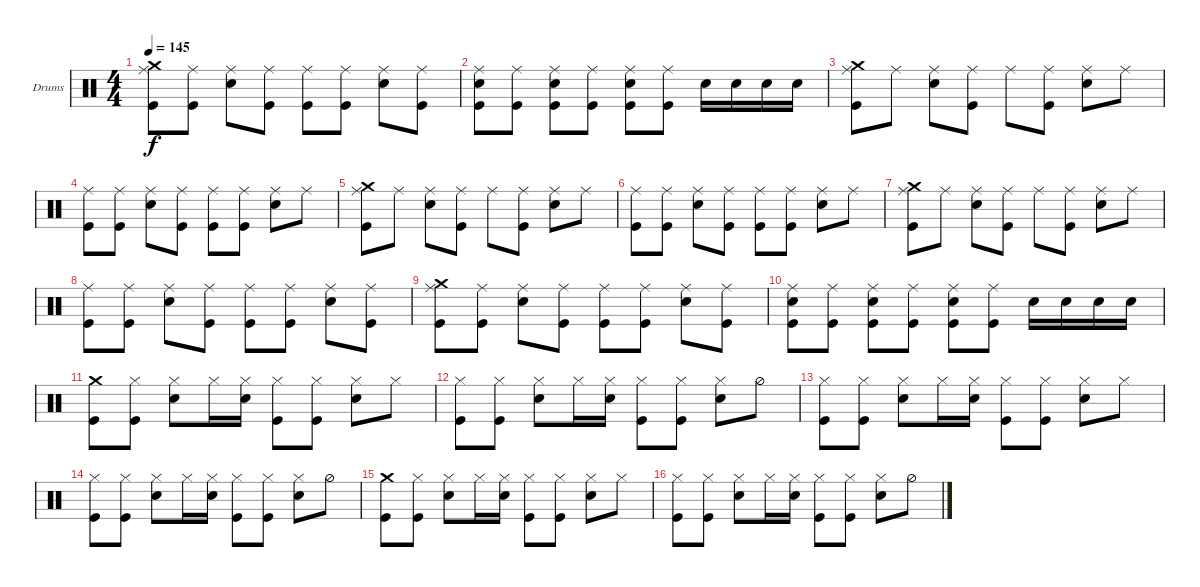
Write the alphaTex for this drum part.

\defaultSystemsLayout 4
\bracketExtendMode groupsimilarinstruments
\firstSystemTrackNameOrientation horizontal
\otherSystemsTrackNameOrientation horizontal
\track ("Drumkit" "Drums") {instrument percussion}
\staff {score}
\articulation defaults
\ts (4 4)
\tempo 145
\clef neutral
\ks c
("Crash medium (hit)" "Kick (hit)" "Ride (middle)").8{dy f} ("Ride (middle)" "Kick (hit)").8 ("Snare (hit) 2" "Ride (middle)").8 ("Kick (hit)" "Ride (middle)").8 ("Ride (middle)" "Kick (hit)").8 ("Kick (hit)" "Ride (middle)").8 ("Snare (hit) 2" "Ride (middle)").8 ("Ride (middle)" "Kick (hit)").8 |
("Kick (hit)" "Snare (hit) 2" "Ride (middle)").8 ("Kick (hit)" "Ride (middle)").8 ("Kick (hit)" "Snare (hit) 2" "Ride (middle)").8 ("Kick (hit)" "Ride (middle)").8 ("Kick (hit)" "Snare (hit) 2" "Ride (middle)").8 ("Kick (hit)" "Ride (middle)").8 "Snare (hit) 2".16 "Snare (hit) 2".16 "Snare (hit) 2".16 "Snare (hit) 2".16 |
("Kick (hit)" "Ride (middle)" "Crash medium (hit)").8 "Ride (middle)".8 ("Snare (hit) 2" "Ride (middle)").8 ("Kick (hit)" "Ride (middle)").8 "Ride (middle)".8 ("Kick (hit)" "Ride (middle)").8 ("Snare (hit) 2" "Ride (middle)").8 "Ride (middle)".8 |
("Kick (hit)" "Ride (middle)").8 ("Kick (hit)" "Ride (middle)").8 ("Snare (hit) 2" "Ride (middle)").8 ("Kick (hit)" "Ride (middle)").8 ("Kick (hit)" "Ride (middle)").8 ("Kick (hit)" "Ride (middle)").8 ("Snare (hit) 2" "Ride (middle)").8 "Ride (middle)".8 |
("Crash medium (hit)" "Kick (hit)" "Ride (middle)").8 "Ride (middle)".8 ("Snare (hit) 2" "Ride (middle)").8 ("Kick (hit)" "Ride (middle)").8 "Ride (middle)".8 ("Kick (hit)" "Ride (middle)").8 ("Snare (hit) 2" "Ride (middle)").8 "Ride (middle)".8 |
("Kick (hit)" "Ride (middle)").8 ("Kick (hit)" "Ride (middle)").8 ("Snare (hit) 2" "Ride (middle)").8 ("Kick (hit)" "Ride (middle)").8 ("Kick (hit)" "Ride (middle)").8 ("Kick (hit)" "Ride (middle)").8 ("Snare (hit) 2" "Ride (middle)").8 "Ride (middle)".8 |
("Kick (hit)" "Ride (middle)" "Crash medium (hit)").8 "Ride (middle)".8 ("Snare (hit) 2" "Ride (middle)").8 ("Kick (hit)" "Ride (middle)").8 "Ride (middle)".8 ("Kick (hit)" "Ride (middle)").8 ("Snare (hit) 2" "Ride (middle)").8 "Ride (middle)".8 |
("Kick (hit)" "Ride (middle)").8 ("Kick (hit)" "Ride (middle)").8 ("Snare (hit) 2" "Ride (middle)").8 ("Kick (hit)" "Ride (middle)").8 ("Kick (hit)" "Ride (middle)").8 ("Kick (hit)" "Ride (middle)").8 ("Snare (hit) 2" "Ride (middle)").8 ("Ride (middle)" "Kick (hit)").8 |
("Crash medium (hit)" "Kick (hit)" "Ride (middle)").8 ("Ride (middle)" "Kick (hit)").8 ("Snare (hit) 2" "Ride (middle)").8 ("Kick (hit)" "Ride (middle)").8 ("Ride (middle)" "Kick (hit)").8 ("Kick (hit)" "Ride (middle)").8 ("Snare (hit) 2" "Ride (middle)").8 ("Ride (middle)" "Kick (hit)").8 |
("Kick (hit)" "Snare (hit) 2" "Ride (middle)").8 ("Kick (hit)" "Ride (middle)").8 ("Kick (hit)" "Snare (hit) 2" "Ride (middle)").8 ("Kick (hit)" "Ride (middle)").8 ("Kick (hit)" "Snare (hit) 2" "Ride (middle)").8 ("Kick (hit)" "Ride (middle)").8 "Snare (hit) 2".16 "Snare (hit) 2".16 "Snare (hit) 2".16 "Snare (hit) 2".16 |
("Kick (hit)" "Crash medium (hit)").8 ("Kick (hit)" "Hi-Hat (closed)").8 ("Snare (hit) 2" "Hi-Hat (closed)").8 "Hi-Hat (closed)".16 ("Snare (hit) 2" "Hi-Hat (closed)").16 ("Kick (hit)" "Hi-Hat (closed)").8 ("Kick (hit)" "Hi-Hat (closed)").8 ("Snare (hit) 2" "Hi-Hat (closed)").8 "Hi-Hat (closed)".8 |
("Kick (hit)" "Hi-Hat (closed)").8 ("Kick (hit)" "Hi-Hat (closed)").8 ("Snare (hit) 2" "Hi-Hat (closed)").8 "Hi-Hat (closed)".16 ("Snare (hit) 2" "Hi-Hat (closed)").16 ("Kick (hit)" "Hi-Hat (closed)").8 ("Kick (hit)" "Hi-Hat (closed)").8 ("Snare (hit) 2" "Hi-Hat (closed)").8 "Hi-Hat (half)".8 |
("Kick (hit)" "Hi-Hat (closed)").8 ("Kick (hit)" "Hi-Hat (closed)").8 ("Snare (hit) 2" "Hi-Hat (closed)").8 "Hi-Hat (closed)".16 ("Snare (hit) 2" "Hi-Hat (closed)").16 ("Kick (hit)" "Hi-Hat (closed)").8 ("Kick (hit)" "Hi-Hat (closed)").8 ("Snare (hit) 2" "Hi-Hat (closed)").8 "Hi-Hat (closed)".8 |
("Kick (hit)" "Hi-Hat (closed)").8 ("Kick (hit)" "Hi-Hat (closed)").8 ("Snare (hit) 2" "Hi-Hat (closed)").8 "Hi-Hat (closed)".16 ("Snare (hit) 2" "Hi-Hat (closed)").16 ("Kick (hit)" "Hi-Hat (closed)").8 ("Kick (hit)" "Hi-Hat (closed)").8 ("Snare (hit) 2" "Hi-Hat (closed)").8 "Hi-Hat (half)".8 |
("Kick (hit)" "Crash medium (hit)").8 ("Kick (hit)" "Hi-Hat (closed)").8 ("Snare (hit) 2" "Hi-Hat (closed)").8 "Hi-Hat (closed)".16 ("Snare (hit) 2" "Hi-Hat (closed)").16 ("Kick (hit)" "Hi-Hat (closed)").8 ("Kick (hit)" "Hi-Hat (closed)").8 ("Snare (hit) 2" "Hi-Hat (closed)").8 "Hi-Hat (closed)".8 |
("Kick (hit)" "Hi-Hat (closed)").8 ("Kick (hit)" "Hi-Hat (closed)").8 ("Snare (hit) 2" "Hi-Hat (closed)").8 "Hi-Hat (closed)".16 ("Snare (hit) 2" "Hi-Hat (closed)").16 ("Kick (hit)" "Hi-Hat (closed)").8 ("Kick (hit)" "Hi-Hat (closed)").8 ("Snare (hit) 2" "Hi-Hat (closed)").8 "Hi-Hat (half)".8
